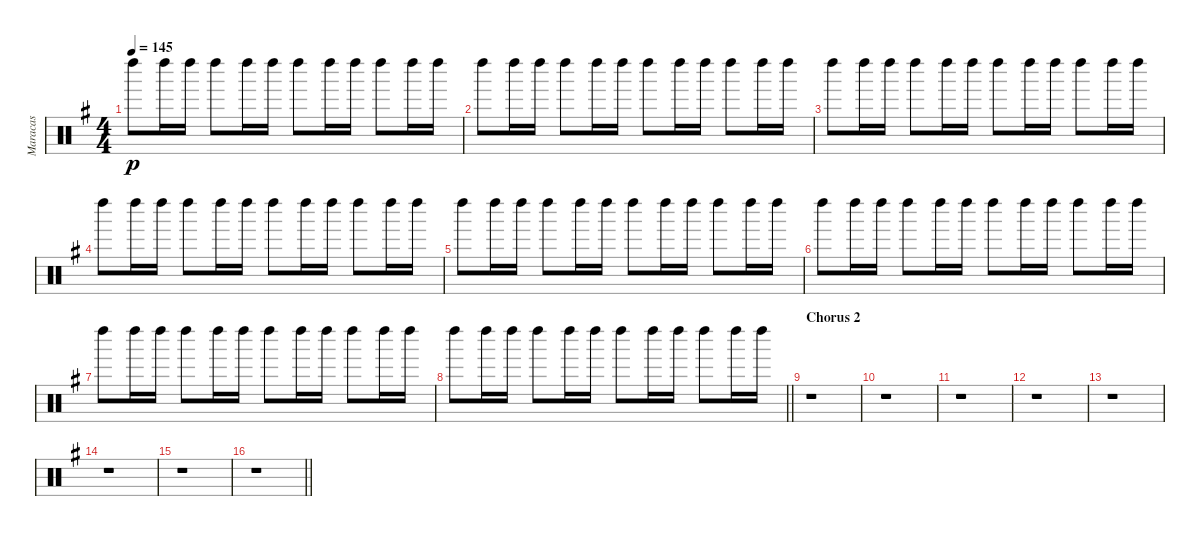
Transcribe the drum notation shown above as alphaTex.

\track ("Maracas" "Maracas") {instrument percussion}
\staff {score}
\articulation defaults
\ts (4 4)
\tempo 145
\clef neutral
\ks g "Left Maraca (hit)".8{dy p} "Left Maraca (hit)".16 "Left Maraca (hit)".16 "Left Maraca (hit)".8 "Left Maraca (hit)".16 "Left Maraca (hit)".16 "Left Maraca (hit)".8 "Left Maraca (hit)".16 "Left Maraca (hit)".16 "Left Maraca (hit)".8 "Left Maraca (hit)".16 "Left Maraca (hit)".16
|
"Left Maraca (hit)".8 "Left Maraca (hit)".16 "Left Maraca (hit)".16 "Left Maraca (hit)".8 "Left Maraca (hit)".16 "Left Maraca (hit)".16 "Left Maraca (hit)".8 "Left Maraca (hit)".16 "Left Maraca (hit)".16 "Left Maraca (hit)".8 "Left Maraca (hit)".16 "Left Maraca (hit)".16 |
"Left Maraca (hit)".8 "Left Maraca (hit)".16 "Left Maraca (hit)".16 "Left Maraca (hit)".8 "Left Maraca (hit)".16 "Left Maraca (hit)".16 "Left Maraca (hit)".8 "Left Maraca (hit)".16 "Left Maraca (hit)".16 "Left Maraca (hit)".8 "Left Maraca (hit)".16 "Left Maraca (hit)".16 |
"Left Maraca (hit)".8 "Left Maraca (hit)".16 "Left Maraca (hit)".16 "Left Maraca (hit)".8 "Left Maraca (hit)".16 "Left Maraca (hit)".16 "Left Maraca (hit)".8 "Left Maraca (hit)".16 "Left Maraca (hit)".16 "Left Maraca (hit)".8 "Left Maraca (hit)".16 "Left Maraca (hit)".16 |
"Left Maraca (hit)".8 "Left Maraca (hit)".16 "Left Maraca (hit)".16 "Left Maraca (hit)".8 "Left Maraca (hit)".16 "Left Maraca (hit)".16 "Left Maraca (hit)".8 "Left Maraca (hit)".16 "Left Maraca (hit)".16 "Left Maraca (hit)".8 "Left Maraca (hit)".16 "Left Maraca (hit)".16 |
"Left Maraca (hit)".8 "Left Maraca (hit)".16 "Left Maraca (hit)".16 "Left Maraca (hit)".8 "Left Maraca (hit)".16 "Left Maraca (hit)".16 "Left Maraca (hit)".8 "Left Maraca (hit)".16 "Left Maraca (hit)".16 "Left Maraca (hit)".8 "Left Maraca (hit)".16 "Left Maraca (hit)".16 |
"Left Maraca (hit)".8 "Left Maraca (hit)".16 "Left Maraca (hit)".16 "Left Maraca (hit)".8 "Left Maraca (hit)".16 "Left Maraca (hit)".16 "Left Maraca (hit)".8 "Left Maraca (hit)".16 "Left Maraca (hit)".16 "Left Maraca (hit)".8 "Left Maraca (hit)".16 "Left Maraca (hit)".16 |
\barLineRight lightlight "Left Maraca (hit)".8 "Left Maraca (hit)".16 "Left Maraca (hit)".16 "Left Maraca (hit)".8 "Left Maraca (hit)".16 "Left Maraca (hit)".16 "Left Maraca (hit)".8 "Left Maraca (hit)".16 "Left Maraca (hit)".16 "Left Maraca (hit)".8 "Left Maraca (hit)".16 "Left Maraca (hit)".16
|
\section ("" "Chorus 2")
r.1 |
r.1 |
r.1 |
r.1 |
r.1 |
r.1 |
r.1 |
\barLineRight lightlight
r.1
